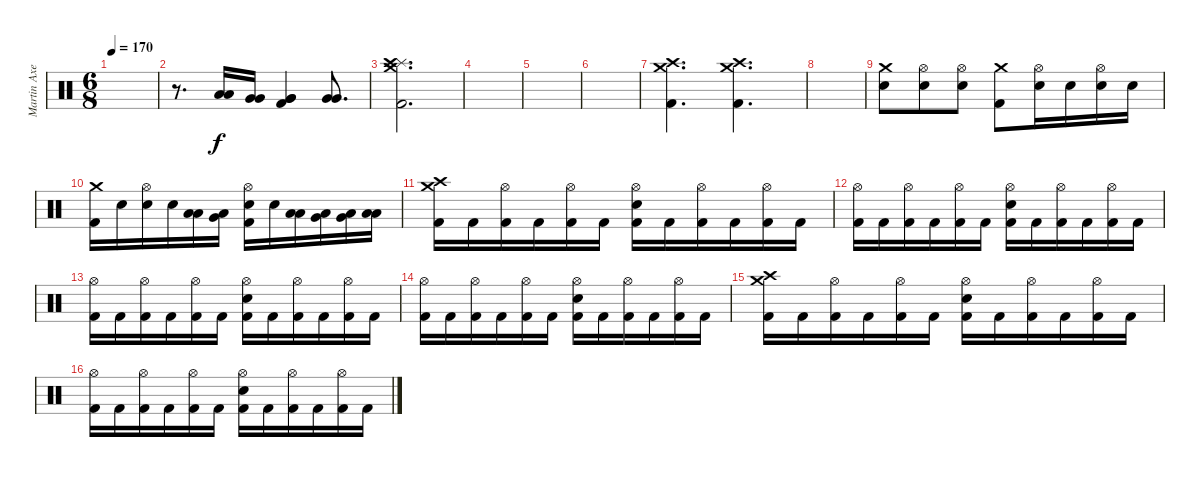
\track ("Martin Axenrot" "Martin Axe") {instrument percussion}
\staff
\articulation defaults
\ts (6 8)
\tempo 170
\clef neutral
\ks c
|
r.8{d} ("Low Tom (hit)" "Low Tom (hit)").16 ("Very Low Tom (hit)" "Very Low Tom (hit)").16 ("Very Low Tom (hit)" "Very Low Tom (hit)" "Kick (hit) 2").4 ("Very Low Tom (hit)" "Very Low Tom (hit)").8{d} |
("Splash (hit)" "Crash high (hit)" "Crash medium (hit)" "Kick (hit) 2").2{d} |
|
|
|
("Crash high (hit)" "Crash medium (hit)" "Kick (hit) 2").4{d} ("Crash high (hit)" "Crash medium (hit)" "Kick (hit) 2").4{d} |
|
("Crash medium (hit)" "Snare (hit) 2").8 ("Hi-Hat (open)" "Snare (hit) 2").8 ("Hi-Hat (open)" "Snare (hit) 2").8 ("Crash medium (hit)" "Kick (hit) 2").8 ("Hi-Hat (open)" "Snare (hit) 2").16 "Snare (hit) 2".16 ("Hi-Hat (open)" "Snare (hit) 2").16 "Snare (hit) 2".16 |
("Crash medium (hit)" "Kick (hit) 2").16 "Snare (hit) 2".16 ("Hi-Hat (open)" "Snare (hit) 2").16 "Snare (hit) 2".16 ("Low Tom (hit)" "Low Tom (hit)").16 ("Very Low Tom (hit)" "Low Tom (hit)").16 ("Hi-Hat (open)" "Snare (hit) 2" "Kick (hit) 2").16 "Snare (hit) 2".16 ("Low Tom (hit)" "Low Tom (hit)").16 ("Very Low Tom (hit)" "Low Tom (hit)").16 ("Very Low Tom (hit)" "Low Tom (hit)").16 ("Low Tom (hit)" "Low Tom (hit)").16 |
("Crash high (hit)" "Crash medium (hit)" "Kick (hit) 2").16 "Kick (hit) 2".16 ("Hi-Hat (open)" "Kick (hit) 2").16 "Kick (hit) 2".16 ("Hi-Hat (open)" "Kick (hit) 2").16 "Kick (hit) 2".16 ("Hi-Hat (open)" "Snare (hit) 2" "Kick (hit) 2").16 "Kick (hit) 2".16 ("Hi-Hat (open)" "Kick (hit) 2").16 "Kick (hit) 2".16 ("Hi-Hat (open)" "Kick (hit) 2").16 "Kick (hit) 2".16 |
("Hi-Hat (open)" "Kick (hit) 2").16 "Kick (hit) 2".16 ("Hi-Hat (open)" "Kick (hit) 2").16 "Kick (hit) 2".16 ("Hi-Hat (open)" "Kick (hit) 2").16 "Kick (hit) 2".16 ("Hi-Hat (open)" "Snare (hit) 2" "Kick (hit) 2").16 "Kick (hit) 2".16 ("Hi-Hat (open)" "Kick (hit) 2").16 "Kick (hit) 2".16 ("Hi-Hat (open)" "Kick (hit) 2").16 "Kick (hit) 2".16 |
("Hi-Hat (open)" "Kick (hit) 2").16 "Kick (hit) 2".16 ("Hi-Hat (open)" "Kick (hit) 2").16 "Kick (hit) 2".16 ("Hi-Hat (open)" "Kick (hit) 2").16 "Kick (hit) 2".16 ("Hi-Hat (open)" "Snare (hit) 2" "Kick (hit) 2").16 "Kick (hit) 2".16 ("Hi-Hat (open)" "Kick (hit) 2").16 "Kick (hit) 2".16 ("Hi-Hat (open)" "Kick (hit) 2").16 "Kick (hit) 2".16 |
("Hi-Hat (open)" "Kick (hit) 2").16 "Kick (hit) 2".16 ("Hi-Hat (open)" "Kick (hit) 2").16 "Kick (hit) 2".16 ("Hi-Hat (open)" "Kick (hit) 2").16 "Kick (hit) 2".16 ("Hi-Hat (open)" "Snare (hit) 2" "Kick (hit) 2").16 "Kick (hit) 2".16 ("Hi-Hat (open)" "Kick (hit) 2").16 "Kick (hit) 2".16 ("Hi-Hat (open)" "Kick (hit) 2").16 "Kick (hit) 2".16 |
("Crash high (hit)" "Crash medium (hit)" "Kick (hit) 2").16 "Kick (hit) 2".16 ("Hi-Hat (open)" "Kick (hit) 2").16 "Kick (hit) 2".16 ("Hi-Hat (open)" "Kick (hit) 2").16 "Kick (hit) 2".16 ("Hi-Hat (open)" "Snare (hit) 2" "Kick (hit) 2").16 "Kick (hit) 2".16 ("Hi-Hat (open)" "Kick (hit) 2").16 "Kick (hit) 2".16 ("Hi-Hat (open)" "Kick (hit) 2").16 "Kick (hit) 2".16 |
("Hi-Hat (open)" "Kick (hit) 2").16 "Kick (hit) 2".16 ("Hi-Hat (open)" "Kick (hit) 2").16 "Kick (hit) 2".16 ("Hi-Hat (open)" "Kick (hit) 2").16 "Kick (hit) 2".16 ("Hi-Hat (open)" "Snare (hit) 2" "Kick (hit) 2").16 "Kick (hit) 2".16 ("Hi-Hat (open)" "Kick (hit) 2").16 "Kick (hit) 2".16 ("Hi-Hat (open)" "Kick (hit) 2").16 "Kick (hit) 2".16
